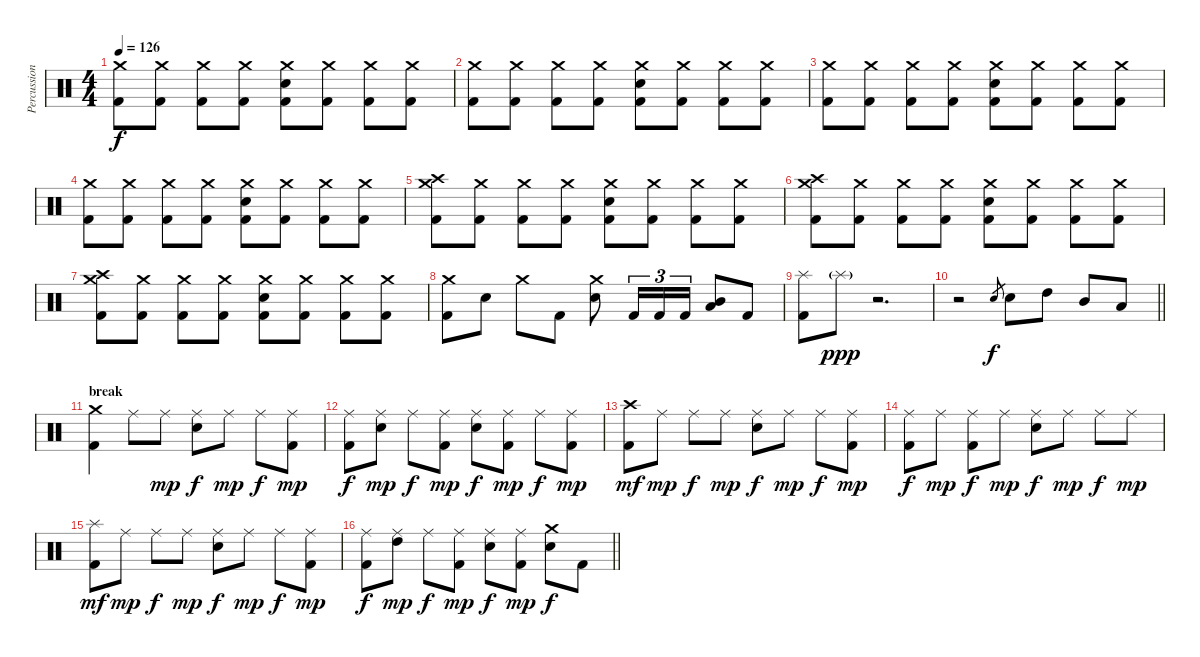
\track ("Percussion" "Percussion") {instrument percussion}
\staff {score}
\articulation defaults
\ts (4 4)
\tempo 126
\clef neutral
\ks c
("Crash medium (hit)" "Kick (hit) 2").8{dy f} ("Crash medium (hit)" "Kick (hit) 2").8 ("Crash medium (hit)" "Kick (hit) 2").8 ("Crash medium (hit)" "Kick (hit) 2").8 ("Crash medium (hit)" "Electric Snare (hit)" "Kick (hit) 2").8 ("Crash medium (hit)" "Kick (hit) 2").8 ("Crash medium (hit)" "Kick (hit) 2").8 ("Crash medium (hit)" "Kick (hit) 2").8 |
("Crash medium (hit)" "Kick (hit) 2").8 ("Crash medium (hit)" "Kick (hit) 2").8 ("Crash medium (hit)" "Kick (hit) 2").8 ("Crash medium (hit)" "Kick (hit) 2").8 ("Crash medium (hit)" "Electric Snare (hit)" "Kick (hit) 2").8 ("Crash medium (hit)" "Kick (hit) 2").8 ("Crash medium (hit)" "Kick (hit) 2").8 ("Crash medium (hit)" "Kick (hit) 2").8 |
("Crash medium (hit)" "Kick (hit) 2").8 ("Crash medium (hit)" "Kick (hit) 2").8 ("Crash medium (hit)" "Kick (hit) 2").8 ("Crash medium (hit)" "Kick (hit) 2").8 ("Crash medium (hit)" "Electric Snare (hit)" "Kick (hit) 2").8 ("Crash medium (hit)" "Kick (hit) 2").8 ("Crash medium (hit)" "Kick (hit) 2").8 ("Crash medium (hit)" "Kick (hit) 2").8 |
("Crash medium (hit)" "Kick (hit) 2").8 ("Crash medium (hit)" "Kick (hit) 2").8 ("Crash medium (hit)" "Kick (hit) 2").8 ("Crash medium (hit)" "Kick (hit) 2").8 ("Crash medium (hit)" "Electric Snare (hit)" "Kick (hit) 2").8 ("Crash medium (hit)" "Kick (hit) 2").8 ("Crash medium (hit)" "Kick (hit) 2").8 ("Crash medium (hit)" "Kick (hit) 2").8 |
("Crash medium (hit)" "Crash high (hit)" "Kick (hit) 2").8 ("Crash medium (hit)" "Kick (hit) 2").8 ("Crash medium (hit)" "Kick (hit) 2").8 ("Crash medium (hit)" "Kick (hit) 2").8 ("Crash medium (hit)" "Electric Snare (hit)" "Kick (hit) 2").8 ("Crash medium (hit)" "Kick (hit) 2").8 ("Crash medium (hit)" "Kick (hit) 2").8 ("Crash medium (hit)" "Kick (hit) 2").8 |
("Crash medium (hit)" "Crash high (hit)" "Kick (hit) 2").8 ("Crash medium (hit)" "Kick (hit) 2").8 ("Crash medium (hit)" "Kick (hit) 2").8 ("Crash medium (hit)" "Kick (hit) 2").8 ("Crash medium (hit)" "Electric Snare (hit)" "Kick (hit) 2").8 ("Crash medium (hit)" "Kick (hit) 2").8 ("Crash medium (hit)" "Kick (hit) 2").8 ("Crash medium (hit)" "Kick (hit) 2").8 |
("Crash medium (hit)" "Crash high (hit)" "Kick (hit) 2").8 ("Crash medium (hit)" "Kick (hit) 2").8 ("Crash medium (hit)" "Kick (hit) 2").8 ("Crash medium (hit)" "Kick (hit) 2").8 ("Crash medium (hit)" "Electric Snare (hit)" "Kick (hit) 2").8 ("Crash medium (hit)" "Kick (hit) 2").8 ("Crash medium (hit)" "Kick (hit) 2").8 ("Crash medium (hit)" "Kick (hit) 2").8 |
("Crash medium (hit)" "Kick (hit) 2").8 "Electric Snare (hit)".8 "Crash medium (hit)".8 "Kick (hit) 2".8 ("Crash medium (hit)" "Electric Snare (hit)").8 "Kick (hit) 2".16{tu (3 2)} "Kick (hit) 2".16{tu (3 2)} "Kick (hit) 2".16{tu (3 2)} ("Mid Tom (hit)" "Low Tom (hit)").8 "Kick (hit) 2".8 |
("Splash (hit)" "Kick (hit) 2").8 "Splash (hit)"{g}.8{dy ppp} r.2{d} |
\barLineRight lightlight
r.2 "Electric Snare (hit)".8{gr dy f} "Electric Snare (hit)".8 "High Tom (hit)".8 "Mid Tom (hit)".8 "Low Tom (hit)".8 |
\section ("" "break")
("Crash medium (hit)" "Kick (hit) 2").4 "Ride (middle)".8 "Ride (middle)".8{dy mp} ("Ride (middle)" "Electric Snare (hit)").8{dy f} "Ride (middle)".8{dy mp} "Ride (middle)".8{dy f} ("Ride (middle)" "Kick (hit) 2").8{dy mp} |
("Ride (middle)" "Kick (hit) 2").8{dy f} ("Ride (middle)" "Electric Snare (hit)").8{dy mp} "Ride (middle)".8{dy f} ("Ride (middle)" "Kick (hit) 2").8{dy mp} ("Ride (middle)" "Electric Snare (hit)").8{dy f} ("Ride (middle)" "Kick (hit) 2").8{dy mp} "Ride (middle)".8{dy f} ("Ride (middle)" "Kick (hit) 2").8{dy mp} |
("Crash high (hit)" "Kick (hit) 2").8{dy mf} "Ride (middle)".8{dy mp} "Ride (middle)".8{dy f} "Ride (middle)".8{dy mp} ("Ride (middle)" "Electric Snare (hit)").8{dy f} "Ride (middle)".8{dy mp} "Ride (middle)".8{dy f} ("Ride (middle)" "Kick (hit) 2").8{dy mp} |
("Ride (middle)" "Kick (hit) 2").8{dy f} "Ride (middle)".8{dy mp} ("Ride (middle)" "Kick (hit) 2").8{dy f} "Ride (middle)".8{dy mp} ("Ride (middle)" "Electric Snare (hit)").8{dy f} "Ride (middle)".8{dy mp} "Ride (middle)".8{dy f} "Ride (middle)".8{dy mp} |
("Splash (hit)" "Kick (hit) 2").8{dy mf} "Ride (middle)".8{dy mp} "Ride (middle)".8{dy f} "Ride (middle)".8{dy mp} ("Ride (middle)" "Electric Snare (hit)").8{dy f} "Ride (middle)".8{dy mp} "Ride (middle)".8{dy f} ("Ride (middle)" "Kick (hit) 2").8{dy mp} |
\barLineRight lightlight
("Ride (middle)" "Kick (hit) 2").8{dy f} ("Ride (middle)" "High Tom (hit)").8{dy mp} "Ride (middle)".8{dy f} ("Ride (middle)" "Kick (hit) 2").8{dy mp} ("Ride (middle)" "Electric Snare (hit)").8{dy f} ("Ride (middle)" "Kick (hit) 2").8{dy mp} ("Crash medium (hit)" "Electric Snare (hit)").8{dy f} "Kick (hit) 2".8
